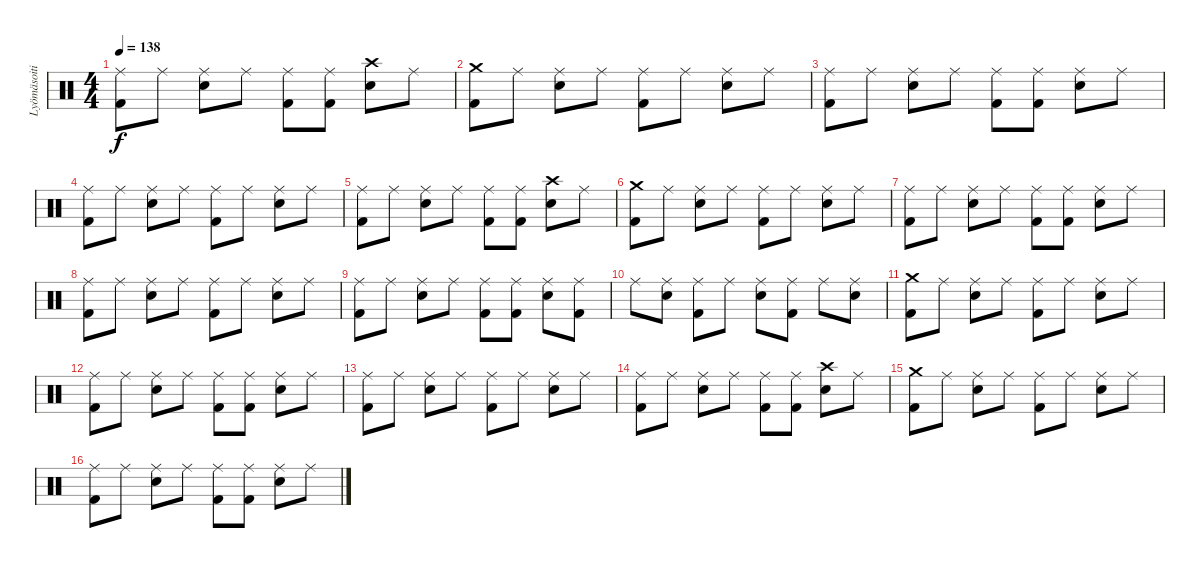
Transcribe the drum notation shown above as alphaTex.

\track ("Lyömäsoitin" "Lyömäsoiti") {instrument percussion}
\staff {score}
\articulation defaults
\ts (4 4)
\tempo 138
\clef neutral
\ks c
("Ride (middle)" "Kick (hit) 2").8{dy f} "Ride (middle)".8 ("Ride (middle)" "Electric Snare (hit)").8 "Ride (middle)".8 ("Ride (middle)" "Kick (hit) 2").8 ("Ride (middle)" "Kick (hit) 2").8 ("Crash high (hit)" "Electric Snare (hit)").8 "Ride (middle)".8 |
("Crash medium (hit)" "Kick (hit) 2").8 "Ride (middle)".8 ("Ride (middle)" "Electric Snare (hit)").8 "Ride (middle)".8 ("Ride (middle)" "Kick (hit) 2").8 "Ride (middle)".8 ("Ride (middle)" "Electric Snare (hit)").8 "Ride (middle)".8 |
("Ride (middle)" "Kick (hit) 2").8 "Ride (middle)".8 ("Ride (middle)" "Electric Snare (hit)").8 "Ride (middle)".8 ("Ride (middle)" "Kick (hit) 2").8 ("Ride (middle)" "Kick (hit) 2").8 ("Ride (middle)" "Electric Snare (hit)").8 "Ride (middle)".8 |
("Ride (middle)" "Kick (hit) 2").8 "Ride (middle)".8 ("Ride (middle)" "Electric Snare (hit)").8 "Ride (middle)".8 ("Ride (middle)" "Kick (hit) 2").8 "Ride (middle)".8 ("Ride (middle)" "Electric Snare (hit)").8 "Ride (middle)".8 |
("Ride (middle)" "Kick (hit) 2").8 "Ride (middle)".8 ("Ride (middle)" "Electric Snare (hit)").8 "Ride (middle)".8 ("Ride (middle)" "Kick (hit) 2").8 ("Ride (middle)" "Kick (hit) 2").8 ("Crash high (hit)" "Electric Snare (hit)").8 "Ride (middle)".8 |
("Crash medium (hit)" "Kick (hit) 2").8 "Ride (middle)".8 ("Ride (middle)" "Electric Snare (hit)").8 "Ride (middle)".8 ("Ride (middle)" "Kick (hit) 2").8 "Ride (middle)".8 ("Ride (middle)" "Electric Snare (hit)").8 "Ride (middle)".8 |
("Ride (middle)" "Kick (hit) 2").8 "Ride (middle)".8 ("Ride (middle)" "Electric Snare (hit)").8 "Ride (middle)".8 ("Ride (middle)" "Kick (hit) 2").8 ("Ride (middle)" "Kick (hit) 2").8 ("Ride (middle)" "Electric Snare (hit)").8 "Ride (middle)".8 |
("Ride (middle)" "Kick (hit) 2").8 "Ride (middle)".8 ("Ride (middle)" "Electric Snare (hit)").8 "Ride (middle)".8 ("Ride (middle)" "Kick (hit) 2").8 "Ride (middle)".8 ("Ride (middle)" "Electric Snare (hit)").8 "Ride (middle)".8 |
("Ride (middle)" "Kick (hit) 2").8 "Ride (middle)".8 ("Ride (middle)" "Electric Snare (hit)").8 "Ride (middle)".8 ("Ride (middle)" "Kick (hit) 2").8 ("Ride (middle)" "Kick (hit) 2").8 ("Ride (middle)" "Electric Snare (hit)").8 ("Ride (middle)" "Kick (hit) 2").8 |
"Ride (middle)".8 ("Ride (middle)" "Electric Snare (hit)").8 ("Ride (middle)" "Kick (hit) 2").8 "Ride (middle)".8 ("Ride (middle)" "Electric Snare (hit)").8 ("Ride (middle)" "Kick (hit) 2").8 "Ride (middle)".8 ("Ride (middle)" "Electric Snare (hit)").8 |
("Crash medium (hit)" "Kick (hit) 2").8 "Ride (middle)".8 ("Ride (middle)" "Electric Snare (hit)").8 "Ride (middle)".8 ("Ride (middle)" "Kick (hit) 2").8 "Ride (middle)".8 ("Ride (middle)" "Electric Snare (hit)").8 "Ride (middle)".8 |
("Ride (middle)" "Kick (hit) 2").8 "Ride (middle)".8 ("Ride (middle)" "Electric Snare (hit)").8 "Ride (middle)".8 ("Ride (middle)" "Kick (hit) 2").8 ("Ride (middle)" "Kick (hit) 2").8 ("Ride (middle)" "Electric Snare (hit)").8 "Ride (middle)".8 |
("Ride (middle)" "Kick (hit) 2").8 "Ride (middle)".8 ("Ride (middle)" "Electric Snare (hit)").8 "Ride (middle)".8 ("Ride (middle)" "Kick (hit) 2").8 "Ride (middle)".8 ("Ride (middle)" "Electric Snare (hit)").8 "Ride (middle)".8 |
("Ride (middle)" "Kick (hit) 2").8 "Ride (middle)".8 ("Ride (middle)" "Electric Snare (hit)").8 "Ride (middle)".8 ("Ride (middle)" "Kick (hit) 2").8 ("Ride (middle)" "Kick (hit) 2").8 ("Crash high (hit)" "Electric Snare (hit)").8 "Ride (middle)".8 |
("Crash medium (hit)" "Kick (hit) 2").8 "Ride (middle)".8 ("Ride (middle)" "Electric Snare (hit)").8 "Ride (middle)".8 ("Ride (middle)" "Kick (hit) 2").8 "Ride (middle)".8 ("Ride (middle)" "Electric Snare (hit)").8 "Ride (middle)".8 |
("Ride (middle)" "Kick (hit) 2").8 "Ride (middle)".8 ("Ride (middle)" "Electric Snare (hit)").8 "Ride (middle)".8 ("Ride (middle)" "Kick (hit) 2").8 ("Ride (middle)" "Kick (hit) 2").8 ("Ride (middle)" "Electric Snare (hit)").8 "Ride (middle)".8
